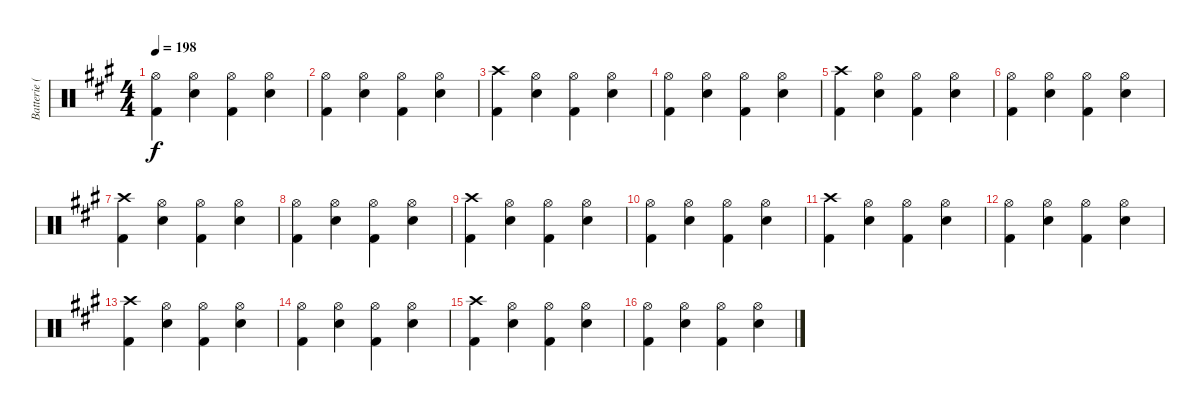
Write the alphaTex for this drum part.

\track ("Batterie (Phil Roud)" "Batterie (") {instrument percussion}
\staff {score}
\articulation defaults
\ts (4 4)
\tempo 198
\clef neutral
\ks a
("Hi-Hat (open)" "Kick (hit) 2").4{dy f} ("Hi-Hat (open)" "Snare (hit) 2").4 ("Hi-Hat (open)" "Kick (hit) 2").4 ("Hi-Hat (open)" "Snare (hit) 2").4 |
("Hi-Hat (open)" "Kick (hit) 2").4 ("Hi-Hat (open)" "Snare (hit) 2").4 ("Hi-Hat (open)" "Kick (hit) 2").4 ("Hi-Hat (open)" "Snare (hit) 2").4 |
("Crash high (hit)" "Kick (hit) 2").4 ("Hi-Hat (open)" "Snare (hit) 2").4 ("Hi-Hat (open)" "Kick (hit) 2").4 ("Hi-Hat (open)" "Snare (hit) 2").4 |
("Hi-Hat (open)" "Kick (hit) 2").4 ("Hi-Hat (open)" "Snare (hit) 2").4 ("Hi-Hat (open)" "Kick (hit) 2").4 ("Hi-Hat (open)" "Snare (hit) 2").4 |
("Crash high (hit)" "Kick (hit) 2").4 ("Hi-Hat (open)" "Snare (hit) 2").4 ("Hi-Hat (open)" "Kick (hit) 2").4 ("Hi-Hat (open)" "Snare (hit) 2").4 |
("Hi-Hat (open)" "Kick (hit) 2").4 ("Hi-Hat (open)" "Snare (hit) 2").4 ("Hi-Hat (open)" "Kick (hit) 2").4 ("Hi-Hat (open)" "Snare (hit) 2").4 |
("Crash high (hit)" "Kick (hit) 2").4 ("Hi-Hat (open)" "Snare (hit) 2").4 ("Hi-Hat (open)" "Kick (hit) 2").4 ("Hi-Hat (open)" "Snare (hit) 2").4 |
("Hi-Hat (open)" "Kick (hit) 2").4 ("Hi-Hat (open)" "Snare (hit) 2").4 ("Hi-Hat (open)" "Kick (hit) 2").4 ("Hi-Hat (open)" "Snare (hit) 2").4 |
("Crash high (hit)" "Kick (hit) 2").4 ("Hi-Hat (open)" "Snare (hit) 2").4 ("Hi-Hat (open)" "Kick (hit) 2").4 ("Hi-Hat (open)" "Snare (hit) 2").4 |
("Hi-Hat (open)" "Kick (hit) 2").4 ("Hi-Hat (open)" "Snare (hit) 2").4 ("Hi-Hat (open)" "Kick (hit) 2").4 ("Hi-Hat (open)" "Snare (hit) 2").4 |
("Crash high (hit)" "Kick (hit) 2").4 ("Hi-Hat (open)" "Snare (hit) 2").4 ("Hi-Hat (open)" "Kick (hit) 2").4 ("Hi-Hat (open)" "Snare (hit) 2").4 |
("Hi-Hat (open)" "Kick (hit) 2").4 ("Hi-Hat (open)" "Snare (hit) 2").4 ("Hi-Hat (open)" "Kick (hit) 2").4 ("Hi-Hat (open)" "Snare (hit) 2").4 |
("Crash high (hit)" "Kick (hit) 2").4 ("Hi-Hat (open)" "Snare (hit) 2").4 ("Hi-Hat (open)" "Kick (hit) 2").4 ("Hi-Hat (open)" "Snare (hit) 2").4 |
("Hi-Hat (open)" "Kick (hit) 2").4 ("Hi-Hat (open)" "Snare (hit) 2").4 ("Hi-Hat (open)" "Kick (hit) 2").4 ("Hi-Hat (open)" "Snare (hit) 2").4 |
("Crash high (hit)" "Kick (hit) 2").4 ("Hi-Hat (open)" "Snare (hit) 2").4 ("Hi-Hat (open)" "Kick (hit) 2").4 ("Hi-Hat (open)" "Snare (hit) 2").4 |
("Hi-Hat (open)" "Kick (hit) 2").4 ("Hi-Hat (open)" "Snare (hit) 2").4 ("Hi-Hat (open)" "Kick (hit) 2").4 ("Hi-Hat (open)" "Snare (hit) 2").4
